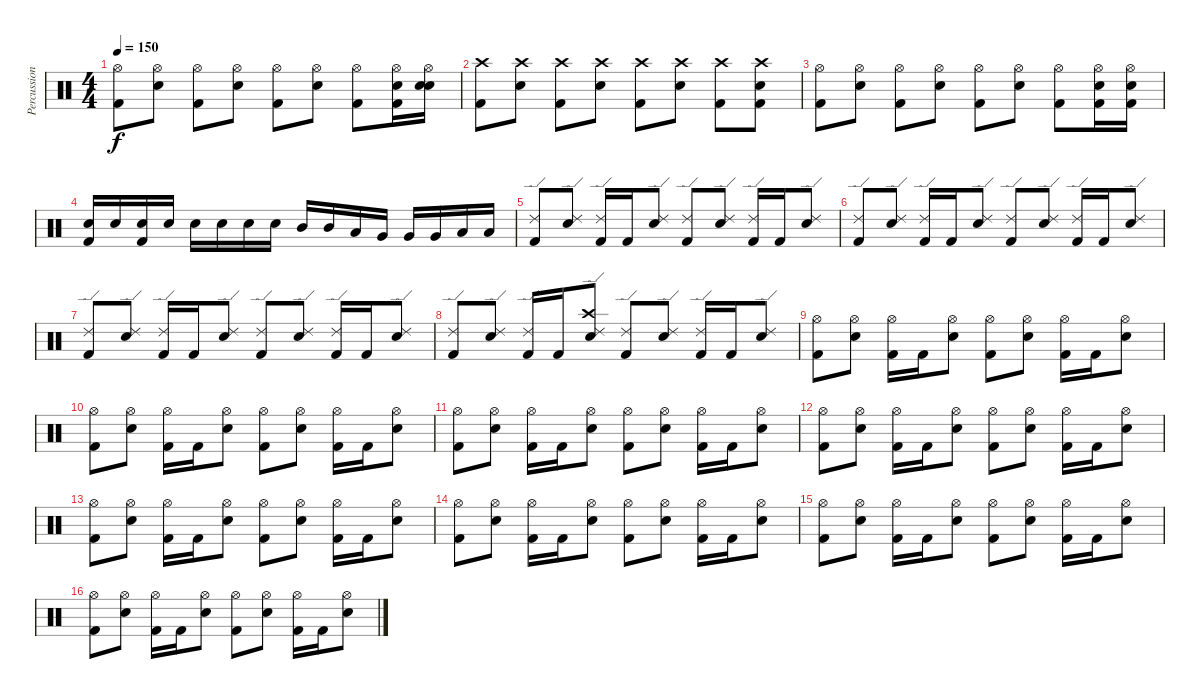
\track ("Percussion" "Percussion") {instrument percussion}
\staff {score}
\articulation defaults
\ts (4 4)
\tempo 150
\clef neutral
\ks c
("Hi-Hat (open)" "Kick (hit) 2").8{dy f} ("Hi-Hat (open)" "Snare (hit) 2").8 ("Hi-Hat (open)" "Kick (hit) 2").8 ("Hi-Hat (open)" "Snare (hit) 2").8 ("Hi-Hat (open)" "Kick (hit) 2").8 ("Hi-Hat (open)" "Snare (hit) 2").8 ("Hi-Hat (open)" "Kick (hit) 2").8 ("Hi-Hat (open)" "Snare (hit) 2" "Kick (hit) 2").16 ("Hi-Hat (open)" "Snare (hit) 2" "Snare (hit) 2").16 |
("Crash high (hit)" "Kick (hit) 2").8 ("Crash high (hit)" "Snare (hit) 2").8 ("Crash high (hit)" "Kick (hit) 2").8 ("Crash high (hit)" "Snare (hit) 2").8 ("Crash high (hit)" "Kick (hit) 2").8 ("Crash high (hit)" "Snare (hit) 2").8 ("Crash high (hit)" "Kick (hit) 2").8 ("Crash high (hit)" "Snare (hit) 2" "Kick (hit) 2").8 |
("Hi-Hat (open)" "Kick (hit) 2").8 ("Hi-Hat (open)" "Snare (hit) 2").8 ("Hi-Hat (open)" "Kick (hit) 2").8 ("Hi-Hat (open)" "Snare (hit) 2").8 ("Hi-Hat (open)" "Kick (hit) 2").8 ("Hi-Hat (open)" "Snare (hit) 2").8 ("Hi-Hat (open)" "Kick (hit) 2").8 ("Hi-Hat (open)" "Snare (hit) 2" "Kick (hit) 2").16 ("Hi-Hat (open)" "Snare (hit) 2" "Kick (hit) 2").16 |
("Snare (hit) 2" "Kick (hit) 2").16 "Snare (hit) 2".16 ("Snare (hit) 2" "Kick (hit) 2").16 "Snare (hit) 2".16 "Snare (hit) 2".16 "Snare (hit) 2".16 "Snare (hit) 2".16 "Snare (hit) 2".16 "Mid Tom (hit)".16 "Mid Tom (hit)".16 "Low Tom (hit)".16 "Very Low Tom (hit)".16 "Very Low Tom (hit)".16 "Very Low Tom (hit)".16 "Low Floor Tom (hit)".16 "Low Floor Tom (hit)".16 |
("Ride (edge) 2" "Kick (hit) 2").8 ("Ride (edge) 2" "Snare (hit) 2").8 ("Ride (edge) 2" "Kick (hit) 2").16 "Kick (hit) 2".16 ("Ride (edge) 2" "Snare (hit) 2").8 ("Ride (edge) 2" "Kick (hit) 2").8 ("Ride (edge) 2" "Snare (hit) 2").8 ("Ride (edge) 2" "Kick (hit) 2").16 "Kick (hit) 2".16 ("Ride (edge) 2" "Snare (hit) 2").8 |
("Ride (edge) 2" "Kick (hit) 2").8 ("Ride (edge) 2" "Snare (hit) 2").8 ("Ride (edge) 2" "Kick (hit) 2").16 "Kick (hit) 2".16 ("Ride (edge) 2" "Snare (hit) 2").8 ("Ride (edge) 2" "Kick (hit) 2").8 ("Ride (edge) 2" "Snare (hit) 2").8 ("Ride (edge) 2" "Kick (hit) 2").16 "Kick (hit) 2".16 ("Ride (edge) 2" "Snare (hit) 2").8 |
("Ride (edge) 2" "Kick (hit) 2").8 ("Ride (edge) 2" "Snare (hit) 2").8 ("Ride (edge) 2" "Kick (hit) 2").16 "Kick (hit) 2".16 ("Ride (edge) 2" "Snare (hit) 2").8 ("Ride (edge) 2" "Kick (hit) 2").8 ("Ride (edge) 2" "Snare (hit) 2").8 ("Ride (edge) 2" "Kick (hit) 2").16 "Kick (hit) 2".16 ("Ride (edge) 2" "Snare (hit) 2").8 |
("Ride (edge) 2" "Kick (hit) 2").8 ("Ride (edge) 2" "Snare (hit) 2").8 ("Ride (edge) 2" "Kick (hit) 2").16 "Kick (hit) 2".16 ("Crash high (hit)" "Ride (edge) 2" "Snare (hit) 2").8 ("Ride (edge) 2" "Kick (hit) 2").8 ("Ride (edge) 2" "Snare (hit) 2").8 ("Ride (edge) 2" "Kick (hit) 2").16 "Kick (hit) 2".16 ("Ride (edge) 2" "Snare (hit) 2").8 |
("Hi-Hat (open)" "Kick (hit) 2").8 ("Hi-Hat (open)" "Snare (hit) 2").8 ("Hi-Hat (open)" "Kick (hit) 2").16 "Kick (hit) 2".16 ("Hi-Hat (open)" "Snare (hit) 2").8 ("Hi-Hat (open)" "Kick (hit) 2").8 ("Hi-Hat (open)" "Snare (hit) 2").8 ("Hi-Hat (open)" "Kick (hit) 2").16 "Kick (hit) 2".16 ("Hi-Hat (open)" "Snare (hit) 2").8 |
("Hi-Hat (open)" "Kick (hit) 2").8 ("Hi-Hat (open)" "Snare (hit) 2").8 ("Hi-Hat (open)" "Kick (hit) 2").16 "Kick (hit) 2".16 ("Hi-Hat (open)" "Snare (hit) 2").8 ("Hi-Hat (open)" "Kick (hit) 2").8 ("Hi-Hat (open)" "Snare (hit) 2").8 ("Hi-Hat (open)" "Kick (hit) 2").16 "Kick (hit) 2".16 ("Hi-Hat (open)" "Snare (hit) 2").8 |
("Hi-Hat (open)" "Kick (hit) 2").8 ("Hi-Hat (open)" "Snare (hit) 2").8 ("Hi-Hat (open)" "Kick (hit) 2").16 "Kick (hit) 2".16 ("Hi-Hat (open)" "Snare (hit) 2").8 ("Hi-Hat (open)" "Kick (hit) 2").8 ("Hi-Hat (open)" "Snare (hit) 2").8 ("Hi-Hat (open)" "Kick (hit) 2").16 "Kick (hit) 2".16 ("Hi-Hat (open)" "Snare (hit) 2").8 |
("Hi-Hat (open)" "Kick (hit) 2").8 ("Hi-Hat (open)" "Snare (hit) 2").8 ("Hi-Hat (open)" "Kick (hit) 2").16 "Kick (hit) 2".16 ("Hi-Hat (open)" "Snare (hit) 2").8 ("Hi-Hat (open)" "Kick (hit) 2").8 ("Hi-Hat (open)" "Snare (hit) 2").8 ("Hi-Hat (open)" "Kick (hit) 2").16 "Kick (hit) 2".16 ("Hi-Hat (open)" "Snare (hit) 2").8 |
("Hi-Hat (open)" "Kick (hit) 2").8 ("Hi-Hat (open)" "Snare (hit) 2").8 ("Hi-Hat (open)" "Kick (hit) 2").16 "Kick (hit) 2".16 ("Hi-Hat (open)" "Snare (hit) 2").8 ("Hi-Hat (open)" "Kick (hit) 2").8 ("Hi-Hat (open)" "Snare (hit) 2").8 ("Hi-Hat (open)" "Kick (hit) 2").16 "Kick (hit) 2".16 ("Hi-Hat (open)" "Snare (hit) 2").8 |
("Hi-Hat (open)" "Kick (hit) 2").8 ("Hi-Hat (open)" "Snare (hit) 2").8 ("Hi-Hat (open)" "Kick (hit) 2").16 "Kick (hit) 2".16 ("Hi-Hat (open)" "Snare (hit) 2").8 ("Hi-Hat (open)" "Kick (hit) 2").8 ("Hi-Hat (open)" "Snare (hit) 2").8 ("Hi-Hat (open)" "Kick (hit) 2").16 "Kick (hit) 2".16 ("Hi-Hat (open)" "Snare (hit) 2").8 |
("Hi-Hat (open)" "Kick (hit) 2").8 ("Hi-Hat (open)" "Snare (hit) 2").8 ("Hi-Hat (open)" "Kick (hit) 2").16 "Kick (hit) 2".16 ("Hi-Hat (open)" "Snare (hit) 2").8 ("Hi-Hat (open)" "Kick (hit) 2").8 ("Hi-Hat (open)" "Snare (hit) 2").8 ("Hi-Hat (open)" "Kick (hit) 2").16 "Kick (hit) 2".16 ("Hi-Hat (open)" "Snare (hit) 2").8 |
("Hi-Hat (open)" "Kick (hit) 2").8 ("Hi-Hat (open)" "Snare (hit) 2").8 ("Hi-Hat (open)" "Kick (hit) 2").16 "Kick (hit) 2".16 ("Hi-Hat (open)" "Snare (hit) 2").8 ("Hi-Hat (open)" "Kick (hit) 2").8 ("Hi-Hat (open)" "Snare (hit) 2").8 ("Hi-Hat (open)" "Kick (hit) 2").16 "Kick (hit) 2".16 ("Hi-Hat (open)" "Snare (hit) 2").8
